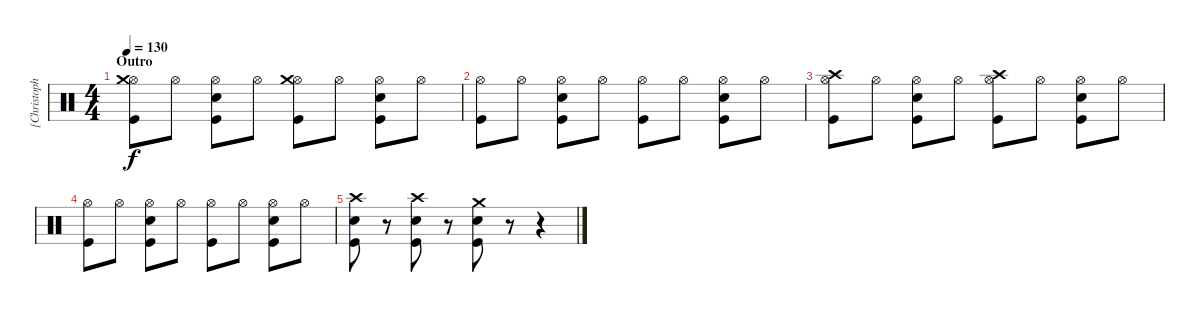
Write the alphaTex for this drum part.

\track ("[Christoph Schneider]  Drums" "[Christoph") {instrument percussion}
\staff {score}
\articulation defaults
\ts (4 4)
\section ("" "Outro")
\tempo 130
\clef neutral
\ks c
("Hi-Hat (open)" "Crash medium (hit)" "Kick (hit)").8{dy f} "Hi-Hat (open)".8 ("Hi-Hat (open)" "Snare (hit) 2" "Kick (hit)").8 "Hi-Hat (open)".8 ("Hi-Hat (open)" "Crash medium (hit)" "Kick (hit)").8 "Hi-Hat (open)".8 ("Hi-Hat (open)" "Snare (hit) 2" "Kick (hit)").8 "Hi-Hat (open)".8 |
("Hi-Hat (open)" "Kick (hit)").8 "Hi-Hat (open)".8 ("Hi-Hat (open)" "Snare (hit) 2" "Kick (hit)").8 "Hi-Hat (open)".8 ("Hi-Hat (open)" "Kick (hit)").8 "Hi-Hat (open)".8 ("Hi-Hat (open)" "Snare (hit) 2" "Kick (hit)").8 "Hi-Hat (open)".8 |
("Hi-Hat (open)" "Crash high (hit)" "Kick (hit)").8 "Hi-Hat (open)".8 ("Hi-Hat (open)" "Snare (hit) 2" "Kick (hit)").8 "Hi-Hat (open)".8 ("Hi-Hat (open)" "Crash high (hit)" "Kick (hit)").8 "Hi-Hat (open)".8 ("Hi-Hat (open)" "Snare (hit) 2" "Kick (hit)").8 "Hi-Hat (open)".8 |
("Hi-Hat (open)" "Kick (hit)").8 "Hi-Hat (open)".8 ("Hi-Hat (open)" "Snare (hit) 2" "Kick (hit)").8 "Hi-Hat (open)".8 ("Hi-Hat (open)" "Kick (hit)").8 "Hi-Hat (open)".8 ("Hi-Hat (open)" "Snare (hit) 2" "Kick (hit)").8 "Hi-Hat (open)".8 |
("Crash high (hit)" "Kick (hit)" "Snare (hit) 2").8 r.8 ("Crash high (hit)" "Kick (hit)" "Snare (hit) 2").8 r.8 ("Crash medium (hit)" "Kick (hit)" "Snare (hit) 2").8 r.8 r.4
